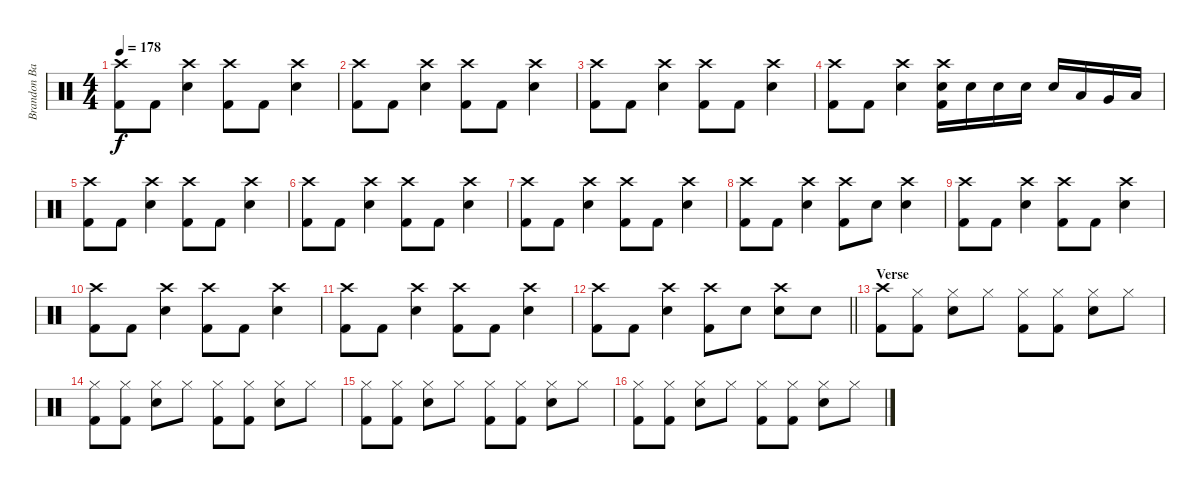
\track ("Brandon Barnes - Drums" "Brandon Ba") {instrument percussion}
\staff {score}
\articulation defaults
\ts (4 4)
\tempo 178
\clef neutral
\ks c
("Crash high (hit)" "Kick (hit) 2").8{dy f} "Kick (hit) 2".8 ("Snare (hit) 2" "Crash high (hit)").4 ("Crash high (hit)" "Kick (hit) 2").8 "Kick (hit) 2".8 ("Snare (hit) 2" "Crash high (hit)").4 |
("Crash high (hit)" "Kick (hit) 2").8 "Kick (hit) 2".8 ("Snare (hit) 2" "Crash high (hit)").4 ("Crash high (hit)" "Kick (hit) 2").8 "Kick (hit) 2".8 ("Snare (hit) 2" "Crash high (hit)").4 |
("Crash high (hit)" "Kick (hit) 2").8 "Kick (hit) 2".8 ("Snare (hit) 2" "Crash high (hit)").4 ("Crash high (hit)" "Kick (hit) 2").8 "Kick (hit) 2".8 ("Snare (hit) 2" "Crash high (hit)").4 |
("Crash high (hit)" "Kick (hit) 2").8 "Kick (hit) 2".8 ("Snare (hit) 2" "Crash high (hit)").4 ("Crash high (hit)" "Kick (hit) 2" "Snare (hit) 2").16 "Snare (hit) 2".16 "Snare (hit) 2".16 "Snare (hit) 2".16 "Snare (hit) 2".16 "Low Tom (hit)".16 "Very Low Tom (hit)".16 "Low Floor Tom (hit)".16 |
("Crash high (hit)" "Kick (hit) 2").8 "Kick (hit) 2".8 ("Snare (hit) 2" "Crash high (hit)").4 ("Crash high (hit)" "Kick (hit) 2").8 "Kick (hit) 2".8 ("Snare (hit) 2" "Crash high (hit)").4 |
("Crash high (hit)" "Kick (hit) 2").8 "Kick (hit) 2".8 ("Snare (hit) 2" "Crash high (hit)").4 ("Crash high (hit)" "Kick (hit) 2").8 "Kick (hit) 2".8 ("Snare (hit) 2" "Crash high (hit)").4 |
("Crash high (hit)" "Kick (hit) 2").8 "Kick (hit) 2".8 ("Snare (hit) 2" "Crash high (hit)").4 ("Crash high (hit)" "Kick (hit) 2").8 "Kick (hit) 2".8 ("Snare (hit) 2" "Crash high (hit)").4 |
("Crash high (hit)" "Kick (hit) 2").8 "Kick (hit) 2".8 ("Snare (hit) 2" "Crash high (hit)").4 ("Crash high (hit)" "Kick (hit) 2").8 "Snare (hit) 2".8 ("Snare (hit) 2" "Crash high (hit)").4 |
("Crash high (hit)" "Kick (hit) 2").8 "Kick (hit) 2".8 ("Snare (hit) 2" "Crash high (hit)").4 ("Crash high (hit)" "Kick (hit) 2").8 "Kick (hit) 2".8 ("Snare (hit) 2" "Crash high (hit)").4 |
("Crash high (hit)" "Kick (hit) 2").8 "Kick (hit) 2".8 ("Snare (hit) 2" "Crash high (hit)").4 ("Crash high (hit)" "Kick (hit) 2").8 "Kick (hit) 2".8 ("Snare (hit) 2" "Crash high (hit)").4 |
("Crash high (hit)" "Kick (hit) 2").8 "Kick (hit) 2".8 ("Snare (hit) 2" "Crash high (hit)").4 ("Crash high (hit)" "Kick (hit) 2").8 "Kick (hit) 2".8 ("Snare (hit) 2" "Crash high (hit)").4 |
\barLineRight lightlight
("Crash high (hit)" "Kick (hit) 2").8 "Kick (hit) 2".8 ("Snare (hit) 2" "Crash high (hit)").4 ("Crash high (hit)" "Kick (hit) 2").8 "Snare (hit) 2".8 ("Snare (hit) 2" "Crash high (hit)").8 "Snare (hit) 2".8 |
\section ("" "Verse")
("Kick (hit) 2" "Crash high (hit)").8 ("Kick (hit) 2" "Hi-Hat (closed)").8 ("Snare (hit) 2" "Hi-Hat (closed)").8 "Hi-Hat (closed)".8 ("Kick (hit) 2" "Hi-Hat (closed)").8 ("Kick (hit) 2" "Hi-Hat (closed)").8 ("Snare (hit) 2" "Hi-Hat (closed)").8 "Hi-Hat (closed)".8 |
("Kick (hit) 2" "Hi-Hat (closed)").8 ("Kick (hit) 2" "Hi-Hat (closed)").8 ("Snare (hit) 2" "Hi-Hat (closed)").8 "Hi-Hat (closed)".8 ("Kick (hit) 2" "Hi-Hat (closed)").8 ("Kick (hit) 2" "Hi-Hat (closed)").8 ("Snare (hit) 2" "Hi-Hat (closed)").8 "Hi-Hat (closed)".8 |
("Kick (hit) 2" "Hi-Hat (closed)").8 ("Kick (hit) 2" "Hi-Hat (closed)").8 ("Snare (hit) 2" "Hi-Hat (closed)").8 "Hi-Hat (closed)".8 ("Kick (hit) 2" "Hi-Hat (closed)").8 ("Kick (hit) 2" "Hi-Hat (closed)").8 ("Snare (hit) 2" "Hi-Hat (closed)").8 "Hi-Hat (closed)".8 |
("Kick (hit) 2" "Hi-Hat (closed)").8 ("Kick (hit) 2" "Hi-Hat (closed)").8 ("Snare (hit) 2" "Hi-Hat (closed)").8 "Hi-Hat (closed)".8 ("Kick (hit) 2" "Hi-Hat (closed)").8 ("Kick (hit) 2" "Hi-Hat (closed)").8 ("Snare (hit) 2" "Hi-Hat (closed)").8 "Hi-Hat (closed)".8
